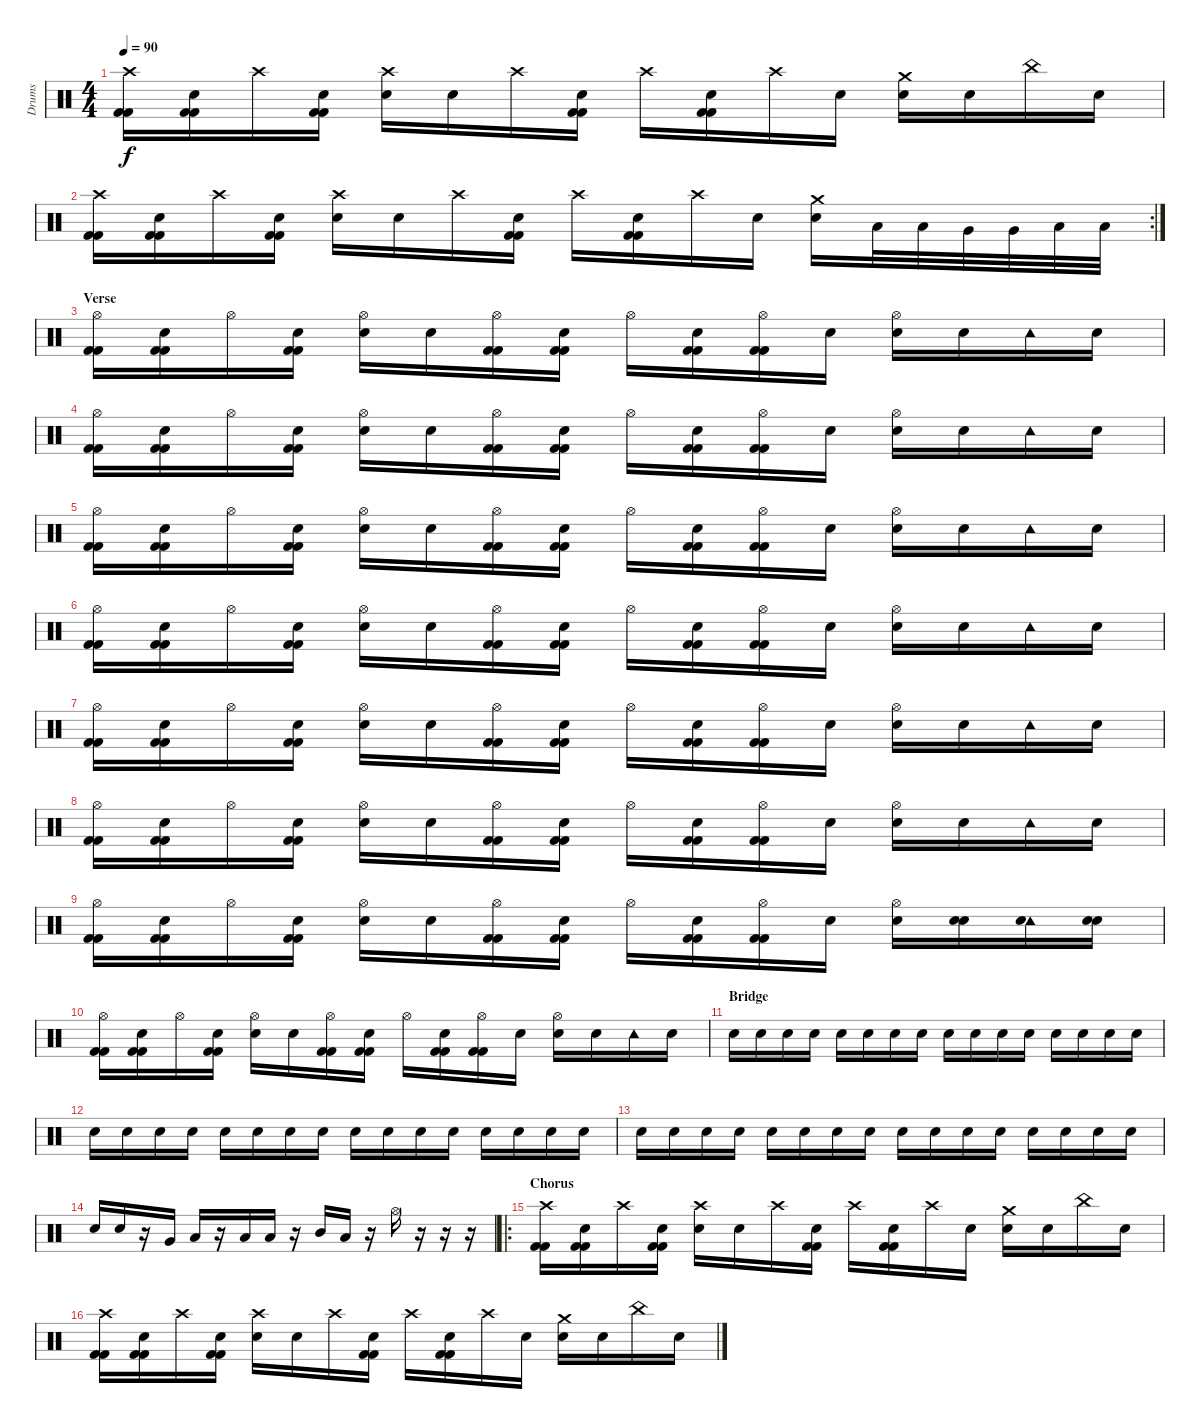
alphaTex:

\track ("Drums" "Drums") {instrument percussion}
\staff {score}
\articulation defaults
\ts (4 4)
\tempo 90
\clef neutral
\ks c
("Crash high (hit)" "Kick (hit) 2" "Kick (hit) 2").16{dy f} ("Snare (hit)"{x} "Kick (hit) 2" "Kick (hit) 2").16 "Crash high (hit)".16 ("Snare (hit)"{x} "Kick (hit) 2" "Kick (hit) 2").16 ("Crash high (hit)" "Electric Snare (hit)").16 "Snare (hit)"{x}.16 "Crash high (hit)".16 ("Snare (hit)"{x} "Kick (hit) 2" "Kick (hit) 2").16 "Crash high (hit)".16 ("Snare (hit)"{x} "Kick (hit) 2" "Kick (hit) 2").16 "Crash high (hit)".16 "Snare (hit)"{x}.16 ("Crash medium (hit)" "Electric Snare (hit)").16 "Snare (hit)"{x}.16 "China (hit)".16 "Snare (hit)"{x}.16 |
\rc 2
("Crash high (hit)" "Kick (hit) 2" "Kick (hit) 2").16 ("Snare (hit)"{x} "Kick (hit) 2" "Kick (hit) 2").16 "Crash high (hit)".16 ("Snare (hit)"{x} "Kick (hit) 2" "Kick (hit) 2").16 ("Crash high (hit)" "Electric Snare (hit)").16 "Snare (hit)"{x}.16 "Crash high (hit)".16 ("Snare (hit)"{x} "Kick (hit) 2" "Kick (hit) 2").16 "Crash high (hit)".16 ("Snare (hit)"{x} "Kick (hit) 2" "Kick (hit) 2").16 "Crash high (hit)".16 "Snare (hit)"{x}.16 ("Crash medium (hit)" "Electric Snare (hit)").16 "Low Floor Tom (hit)".32 "Low Floor Tom (hit)".32 "Very Low Tom (hit)".32 "Very Low Tom (hit)".32 "Low Tom (hit)".32 "Low Tom (hit)".32 |
\section ("" "Verse")
("Hi-Hat (open)" "Kick (hit) 2" "Kick (hit) 2").16 ("Snare (hit)"{x} "Kick (hit) 2" "Kick (hit) 2").16 "Hi-Hat (open)".16 ("Snare (hit)"{x} "Kick (hit) 2" "Kick (hit) 2").16 ("Hi-Hat (open)" "Electric Snare (hit)").16 "Snare (hit)"{x}.16 ("Hi-Hat (open)" "Kick (hit) 2" "Kick (hit) 2").16 ("Snare (hit)"{x} "Kick (hit) 2" "Kick (hit) 2").16 "Hi-Hat (open)".16 ("Snare (hit)"{x} "Kick (hit) 2" "Kick (hit) 2").16 ("Hi-Hat (open)" "Kick (hit) 2" "Kick (hit) 2").16 "Snare (hit)"{x}.16 ("Hi-Hat (open)" "Electric Snare (hit)").16 "Snare (hit)"{x}.16 "Tambourine (hit)".16 "Snare (hit)"{x}.16 |
("Hi-Hat (open)" "Kick (hit) 2" "Kick (hit) 2").16 ("Snare (hit)"{x} "Kick (hit) 2" "Kick (hit) 2").16 "Hi-Hat (open)".16 ("Snare (hit)"{x} "Kick (hit) 2" "Kick (hit) 2").16 ("Hi-Hat (open)" "Electric Snare (hit)").16 "Snare (hit)"{x}.16 ("Hi-Hat (open)" "Kick (hit) 2" "Kick (hit) 2").16 ("Snare (hit)"{x} "Kick (hit) 2" "Kick (hit) 2").16 "Hi-Hat (open)".16 ("Snare (hit)"{x} "Kick (hit) 2" "Kick (hit) 2").16 ("Hi-Hat (open)" "Kick (hit) 2" "Kick (hit) 2").16 "Snare (hit)"{x}.16 ("Hi-Hat (open)" "Electric Snare (hit)").16 "Snare (hit)"{x}.16 "Tambourine (hit)".16 "Snare (hit)"{x}.16 |
("Hi-Hat (open)" "Kick (hit) 2" "Kick (hit) 2").16 ("Snare (hit)"{x} "Kick (hit) 2" "Kick (hit) 2").16 "Hi-Hat (open)".16 ("Snare (hit)"{x} "Kick (hit) 2" "Kick (hit) 2").16 ("Hi-Hat (open)" "Electric Snare (hit)").16 "Snare (hit)"{x}.16 ("Hi-Hat (open)" "Kick (hit) 2" "Kick (hit) 2").16 ("Snare (hit)"{x} "Kick (hit) 2" "Kick (hit) 2").16 "Hi-Hat (open)".16 ("Snare (hit)"{x} "Kick (hit) 2" "Kick (hit) 2").16 ("Hi-Hat (open)" "Kick (hit) 2" "Kick (hit) 2").16 "Snare (hit)"{x}.16 ("Hi-Hat (open)" "Electric Snare (hit)").16 "Snare (hit)"{x}.16 "Tambourine (hit)".16 "Snare (hit)"{x}.16 |
("Hi-Hat (open)" "Kick (hit) 2" "Kick (hit) 2").16 ("Snare (hit)"{x} "Kick (hit) 2" "Kick (hit) 2").16 "Hi-Hat (open)".16 ("Snare (hit)"{x} "Kick (hit) 2" "Kick (hit) 2").16 ("Hi-Hat (open)" "Electric Snare (hit)").16 "Snare (hit)"{x}.16 ("Hi-Hat (open)" "Kick (hit) 2" "Kick (hit) 2").16 ("Snare (hit)"{x} "Kick (hit) 2" "Kick (hit) 2").16 "Hi-Hat (open)".16 ("Snare (hit)"{x} "Kick (hit) 2" "Kick (hit) 2").16 ("Hi-Hat (open)" "Kick (hit) 2" "Kick (hit) 2").16 "Snare (hit)"{x}.16 ("Hi-Hat (open)" "Electric Snare (hit)").16 "Snare (hit)"{x}.16 "Tambourine (hit)".16 "Snare (hit)"{x}.16 |
("Hi-Hat (open)" "Kick (hit) 2" "Kick (hit) 2").16 ("Snare (hit)"{x} "Kick (hit) 2" "Kick (hit) 2").16 "Hi-Hat (open)".16 ("Snare (hit)"{x} "Kick (hit) 2" "Kick (hit) 2").16 ("Hi-Hat (open)" "Electric Snare (hit)").16 "Snare (hit)"{x}.16 ("Hi-Hat (open)" "Kick (hit) 2" "Kick (hit) 2").16 ("Snare (hit)"{x} "Kick (hit) 2" "Kick (hit) 2").16 "Hi-Hat (open)".16 ("Snare (hit)"{x} "Kick (hit) 2" "Kick (hit) 2").16 ("Hi-Hat (open)" "Kick (hit) 2" "Kick (hit) 2").16 "Snare (hit)"{x}.16 ("Hi-Hat (open)" "Electric Snare (hit)").16 "Snare (hit)"{x}.16 "Tambourine (hit)".16 "Snare (hit)"{x}.16 |
("Hi-Hat (open)" "Kick (hit) 2" "Kick (hit) 2").16 ("Snare (hit)"{x} "Kick (hit) 2" "Kick (hit) 2").16 "Hi-Hat (open)".16 ("Snare (hit)"{x} "Kick (hit) 2" "Kick (hit) 2").16 ("Hi-Hat (open)" "Electric Snare (hit)").16 "Snare (hit)"{x}.16 ("Hi-Hat (open)" "Kick (hit) 2" "Kick (hit) 2").16 ("Snare (hit)"{x} "Kick (hit) 2" "Kick (hit) 2").16 "Hi-Hat (open)".16 ("Snare (hit)"{x} "Kick (hit) 2" "Kick (hit) 2").16 ("Hi-Hat (open)" "Kick (hit) 2" "Kick (hit) 2").16 "Snare (hit)"{x}.16 ("Hi-Hat (open)" "Electric Snare (hit)").16 "Snare (hit)"{x}.16 "Tambourine (hit)".16 "Snare (hit)"{x}.16 |
("Hi-Hat (open)" "Kick (hit) 2" "Kick (hit) 2").16 ("Snare (hit)"{x} "Kick (hit) 2" "Kick (hit) 2").16 "Hi-Hat (open)".16 ("Snare (hit)"{x} "Kick (hit) 2" "Kick (hit) 2").16 ("Hi-Hat (open)" "Electric Snare (hit)").16 "Snare (hit)"{x}.16 ("Hi-Hat (open)" "Kick (hit) 2" "Kick (hit) 2").16 ("Snare (hit)"{x} "Kick (hit) 2" "Kick (hit) 2").16 "Hi-Hat (open)".16 ("Snare (hit)"{x} "Kick (hit) 2" "Kick (hit) 2").16 ("Hi-Hat (open)" "Kick (hit) 2" "Kick (hit) 2").16 "Snare (hit)"{x}.16 ("Hi-Hat (open)"{x} "Electric Snare (hit)").16 ("Snare (hit)"{x} "Electric Snare (hit)").16 ("Tambourine (hit)"{x} "Electric Snare (hit)").16 ("Snare (hit)"{x} "Electric Snare (hit)").16 |
("Hi-Hat (open)" "Kick (hit) 2" "Kick (hit) 2").16 ("Snare (hit)"{x} "Kick (hit) 2" "Kick (hit) 2").16 "Hi-Hat (open)".16 ("Snare (hit)"{x} "Kick (hit) 2" "Kick (hit) 2").16 ("Hi-Hat (open)" "Electric Snare (hit)").16 "Snare (hit)"{x}.16 ("Hi-Hat (open)" "Kick (hit) 2" "Kick (hit) 2").16 ("Snare (hit)"{x} "Kick (hit) 2" "Kick (hit) 2").16 "Hi-Hat (open)".16 ("Snare (hit)"{x} "Kick (hit) 2" "Kick (hit) 2").16 ("Hi-Hat (open)" "Kick (hit) 2" "Kick (hit) 2").16 "Snare (hit)"{x}.16 ("Hi-Hat (open)" "Electric Snare (hit)").16 "Snare (hit)"{x}.16 "Tambourine (hit)".16 "Snare (hit)"{x}.16 |
\section ("" "Bridge")
"Electric Snare (hit)".16 "Electric Snare (hit)".16 "Snare (hit)"{x}.16 "Electric Snare (hit)".16 "Electric Snare (hit)".16 "Snare (hit)"{x}.16 "Electric Snare (hit)".16 "Electric Snare (hit)".16 "Snare (hit)"{x}.16 "Electric Snare (hit)".16 "Electric Snare (hit)".16 "Snare (hit)"{x}.16 "Electric Snare (hit)".16 "Snare (hit)"{x}.16 "Electric Snare (hit)".16 "Snare (hit)"{x}.16 |
"Electric Snare (hit)".16 "Electric Snare (hit)".16 "Snare (hit)"{x}.16 "Electric Snare (hit)".16 "Electric Snare (hit)".16 "Snare (hit)"{x}.16 "Electric Snare (hit)".16 "Electric Snare (hit)".16 "Snare (hit)"{x}.16 "Electric Snare (hit)".16 "Electric Snare (hit)".16 "Snare (hit)"{x}.16 "Electric Snare (hit)".16 "Electric Snare (hit)".16 "Electric Snare (hit)".16 "Electric Snare (hit)".16 |
"Electric Snare (hit)".16 "Electric Snare (hit)".16 "Snare (hit)"{x}.16 "Electric Snare (hit)".16 "Electric Snare (hit)".16 "Snare (hit)"{x}.16 "Electric Snare (hit)".16 "Electric Snare (hit)".16 "Snare (hit)"{x}.16 "Electric Snare (hit)".16 "Electric Snare (hit)".16 "Snare (hit)"{x}.16 "Electric Snare (hit)".16 "Snare (hit)"{x}.16 "Electric Snare (hit)".16 "Snare (hit)"{x}.16 |
"Electric Snare (hit)".16 "Electric Snare (hit)".16 r.16 "Very Low Tom (hit)".16 "Low Floor Tom (hit)".16 r.16 "Low Tom (hit)".16 "Low Floor Tom (hit)".16 r.16 "Mid Tom (hit)".16 "Low Floor Tom (hit)".16 r.16 "Hi-Hat (open)".16 r.16 r.16 r.16 |
\ro
\section ("" "Chorus")
("Crash high (hit)" "Kick (hit) 2" "Kick (hit) 2").16 ("Snare (hit)"{x} "Kick (hit) 2" "Kick (hit) 2").16 "Crash high (hit)".16 ("Snare (hit)"{x} "Kick (hit) 2" "Kick (hit) 2").16 ("Crash high (hit)" "Electric Snare (hit)").16 "Snare (hit)"{x}.16 "Crash high (hit)".16 ("Snare (hit)"{x} "Kick (hit) 2" "Kick (hit) 2").16 "Crash high (hit)".16 ("Snare (hit)"{x} "Kick (hit) 2" "Kick (hit) 2").16 "Crash high (hit)".16 "Snare (hit)"{x}.16 ("Crash medium (hit)" "Electric Snare (hit)").16 "Snare (hit)"{x}.16 "China (hit)".16 "Snare (hit)"{x}.16 |
("Crash high (hit)" "Kick (hit) 2" "Kick (hit) 2").16 ("Snare (hit)"{x} "Kick (hit) 2" "Kick (hit) 2").16 "Crash high (hit)".16 ("Snare (hit)"{x} "Kick (hit) 2" "Kick (hit) 2").16 ("Crash high (hit)" "Electric Snare (hit)").16 "Snare (hit)"{x}.16 "Crash high (hit)".16 ("Snare (hit)"{x} "Kick (hit) 2" "Kick (hit) 2").16 "Crash high (hit)".16 ("Snare (hit)"{x} "Kick (hit) 2" "Kick (hit) 2").16 "Crash high (hit)".16 "Snare (hit)"{x}.16 ("Crash medium (hit)" "Electric Snare (hit)").16 "Snare (hit)"{x}.16 "China (hit)".16 "Snare (hit)"{x}.16
